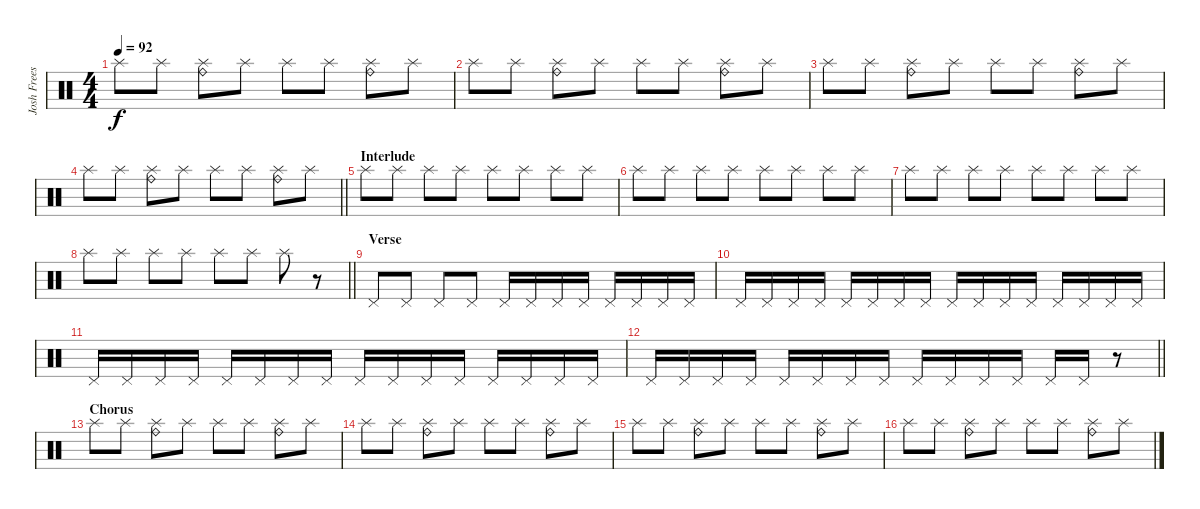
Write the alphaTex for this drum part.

\track ("Josh Freese (Studio Drummer)" "Josh Frees") {instrument percussion}
\staff {score}
\articulation defaults
\ts (4 4)
\tempo 92
\clef neutral
\ks c "Splash (hit)".8{dy f} "Splash (hit)".8
("Splash (hit)" "Ride (bell)").8 "Splash (hit)".8 "Splash (hit)".8 "Splash (hit)".8 ("Splash (hit)" "Ride (bell)").8 "Splash (hit)".8 |
"Splash (hit)".8 "Splash (hit)".8 ("Splash (hit)" "Ride (bell)").8 "Splash (hit)".8 "Splash (hit)".8 "Splash (hit)".8 ("Splash (hit)" "Ride (bell)").8 "Splash (hit)".8 |
"Splash (hit)".8 "Splash (hit)".8 ("Splash (hit)" "Ride (bell)").8 "Splash (hit)".8 "Splash (hit)".8 "Splash (hit)".8 ("Splash (hit)" "Ride (bell)").8 "Splash (hit)".8 |
\barLineRight lightlight "Splash (hit)".8 "Splash (hit)".8
("Splash (hit)" "Ride (bell)").8 "Splash (hit)".8 "Splash (hit)".8 "Splash (hit)".8 ("Splash (hit)" "Ride (bell)").8 "Splash (hit)".8 |
\section ("" "Interlude")
"Splash (hit)".8 "Splash (hit)".8 "Splash (hit)".8 "Splash (hit)".8 "Splash (hit)".8 "Splash (hit)".8 "Splash (hit)".8 "Splash (hit)".8 |
"Splash (hit)".8 "Splash (hit)".8 "Splash (hit)".8 "Splash (hit)".8 "Splash (hit)".8 "Splash (hit)".8 "Splash (hit)".8 "Splash (hit)".8 |
"Splash (hit)".8 "Splash (hit)".8 "Splash (hit)".8 "Splash (hit)".8 "Splash (hit)".8 "Splash (hit)".8 "Splash (hit)".8 "Splash (hit)".8 |
\barLineRight lightlight "Splash (hit)".8 "Splash (hit)".8 "Splash (hit)".8 "Splash (hit)".8 "Splash (hit)".8 "Splash (hit)".8 "Splash (hit)".8
r.8 |
\section ("" "Verse")
"Pedal Hi-Hat (hit)".8 "Pedal Hi-Hat (hit)".8 "Pedal Hi-Hat (hit)".8 "Pedal Hi-Hat (hit)".8 "Pedal Hi-Hat (hit)".16 "Pedal Hi-Hat (hit)".16 "Pedal Hi-Hat (hit)".16 "Pedal Hi-Hat (hit)".16 "Pedal Hi-Hat (hit)".16 "Pedal Hi-Hat (hit)".16 "Pedal Hi-Hat (hit)".16 "Pedal Hi-Hat (hit)".16 |
"Pedal Hi-Hat (hit)".16 "Pedal Hi-Hat (hit)".16 "Pedal Hi-Hat (hit)".16 "Pedal Hi-Hat (hit)".16 "Pedal Hi-Hat (hit)".16 "Pedal Hi-Hat (hit)".16 "Pedal Hi-Hat (hit)".16 "Pedal Hi-Hat (hit)".16 "Pedal Hi-Hat (hit)".16 "Pedal Hi-Hat (hit)".16 "Pedal Hi-Hat (hit)".16 "Pedal Hi-Hat (hit)".16 "Pedal Hi-Hat (hit)".16 "Pedal Hi-Hat (hit)".16 "Pedal Hi-Hat (hit)".16 "Pedal Hi-Hat (hit)".16 |
"Pedal Hi-Hat (hit)".16 "Pedal Hi-Hat (hit)".16 "Pedal Hi-Hat (hit)".16 "Pedal Hi-Hat (hit)".16 "Pedal Hi-Hat (hit)".16 "Pedal Hi-Hat (hit)".16 "Pedal Hi-Hat (hit)".16 "Pedal Hi-Hat (hit)".16 "Pedal Hi-Hat (hit)".16 "Pedal Hi-Hat (hit)".16 "Pedal Hi-Hat (hit)".16 "Pedal Hi-Hat (hit)".16 "Pedal Hi-Hat (hit)".16 "Pedal Hi-Hat (hit)".16 "Pedal Hi-Hat (hit)".16 "Pedal Hi-Hat (hit)".16 |
\barLineRight lightlight "Pedal Hi-Hat (hit)".16 "Pedal Hi-Hat (hit)".16 "Pedal Hi-Hat (hit)".16 "Pedal Hi-Hat (hit)".16 "Pedal Hi-Hat (hit)".16 "Pedal Hi-Hat (hit)".16 "Pedal Hi-Hat (hit)".16 "Pedal Hi-Hat (hit)".16 "Pedal Hi-Hat (hit)".16 "Pedal Hi-Hat (hit)".16 "Pedal Hi-Hat (hit)".16 "Pedal Hi-Hat (hit)".16 "Pedal Hi-Hat (hit)".16 "Pedal Hi-Hat (hit)".16
r.8 |
\section ("" "Chorus")
"Splash (hit)".8 "Splash (hit)".8 ("Splash (hit)" "Ride (bell)").8 "Splash (hit)".8 "Splash (hit)".8 "Splash (hit)".8 ("Splash (hit)" "Ride (bell)").8 "Splash (hit)".8 |
"Splash (hit)".8 "Splash (hit)".8 ("Splash (hit)" "Ride (bell)").8 "Splash (hit)".8 "Splash (hit)".8 "Splash (hit)".8 ("Splash (hit)" "Ride (bell)").8 "Splash (hit)".8 |
"Splash (hit)".8 "Splash (hit)".8 ("Splash (hit)" "Ride (bell)").8 "Splash (hit)".8 "Splash (hit)".8 "Splash (hit)".8 ("Splash (hit)" "Ride (bell)").8 "Splash (hit)".8 |
"Splash (hit)".8 "Splash (hit)".8 ("Splash (hit)" "Ride (bell)").8 "Splash (hit)".8 "Splash (hit)".8 "Splash (hit)".8 ("Splash (hit)" "Ride (bell)").8 "Splash (hit)".8
